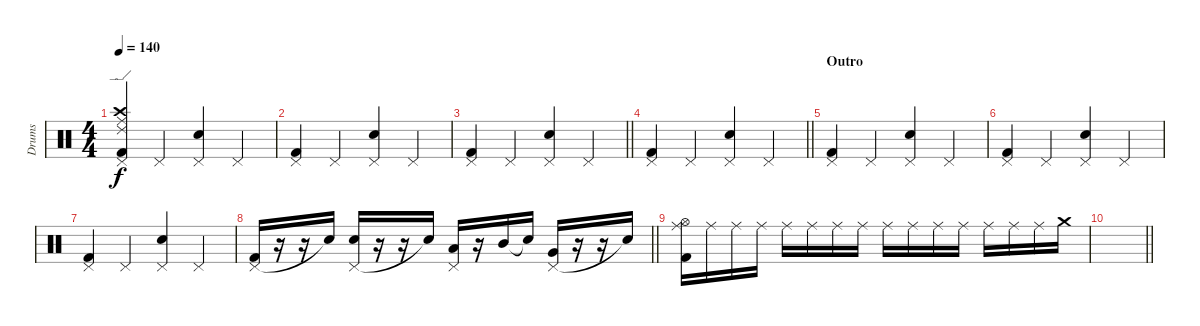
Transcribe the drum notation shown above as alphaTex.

\track ("Drums" "Drums") {instrument percussion}
\staff {score}
\articulation defaults
\ts (4 4)
\tempo 140
\clef neutral
\ks c
("Pedal Hi-Hat (hit)" "Kick (hit) 2" "Ride (middle)" "Crash high (hit)" "Ride (edge) 2").4{dy f} "Pedal Hi-Hat (hit)".4 ("Pedal Hi-Hat (hit)" "Snare (hit) 2").4 "Pedal Hi-Hat (hit)".4 |
("Pedal Hi-Hat (hit)" "Kick (hit) 2").4 "Pedal Hi-Hat (hit)".4 ("Pedal Hi-Hat (hit)" "Snare (hit) 2").4 "Pedal Hi-Hat (hit)".4 |
\barLineRight lightlight
("Pedal Hi-Hat (hit)" "Kick (hit) 2").4 "Pedal Hi-Hat (hit)".4 ("Pedal Hi-Hat (hit)" "Snare (hit) 2").4 "Pedal Hi-Hat (hit)".4 |
\barLineRight lightlight
("Pedal Hi-Hat (hit)" "Kick (hit) 2").4 "Pedal Hi-Hat (hit)".4 ("Pedal Hi-Hat (hit)" "Snare (hit) 2").4 "Pedal Hi-Hat (hit)".4 |
\section ("" "Outro")
("Pedal Hi-Hat (hit)" "Kick (hit) 2").4 "Pedal Hi-Hat (hit)".4 ("Pedal Hi-Hat (hit)" "Snare (hit) 2").4 "Pedal Hi-Hat (hit)".4 |
("Pedal Hi-Hat (hit)" "Kick (hit) 2").4 "Pedal Hi-Hat (hit)".4 ("Pedal Hi-Hat (hit)" "Snare (hit) 2").4 "Pedal Hi-Hat (hit)".4 |
("Pedal Hi-Hat (hit)" "Kick (hit) 2").4 "Pedal Hi-Hat (hit)".4 ("Pedal Hi-Hat (hit)" "Snare (hit) 2").4 "Pedal Hi-Hat (hit)".4 |
\barLineRight lightlight
("Pedal Hi-Hat (hit)" "Kick (hit) 2").16 r.16 r.16 "Snare (hit)"{t}.16 ("Pedal Hi-Hat (hit)" "Snare (hit) 2").16 r.16 r.16 "Snare (hit)"{t}.16 ("Pedal Hi-Hat (hit)" "Low Tom (hit)").16 r.16 "Mid Tom (hit)".16 "Snare (hit)"{t}.16 ("Pedal Hi-Hat (hit)" "Very Low Tom (hit)").16 r.16 r.16 "Snare (hit)"{t}.16 |
("Kick (hit) 2" "Hi-Hat (open)" "Ride (middle)").16 "Ride (middle)".16 "Ride (middle)".16 "Ride (middle)".16 "Ride (middle)".16 "Ride (middle)".16 "Ride (middle)".16 "Ride (middle)".16 "Ride (middle)".16 "Ride (middle)".16 "Ride (middle)".16 "Ride (middle)".16 "Ride (middle)".16 "Ride (middle)".16 "Ride (middle)".16 "Crash medium (hit)".16 |
\barLineRight lightlight
